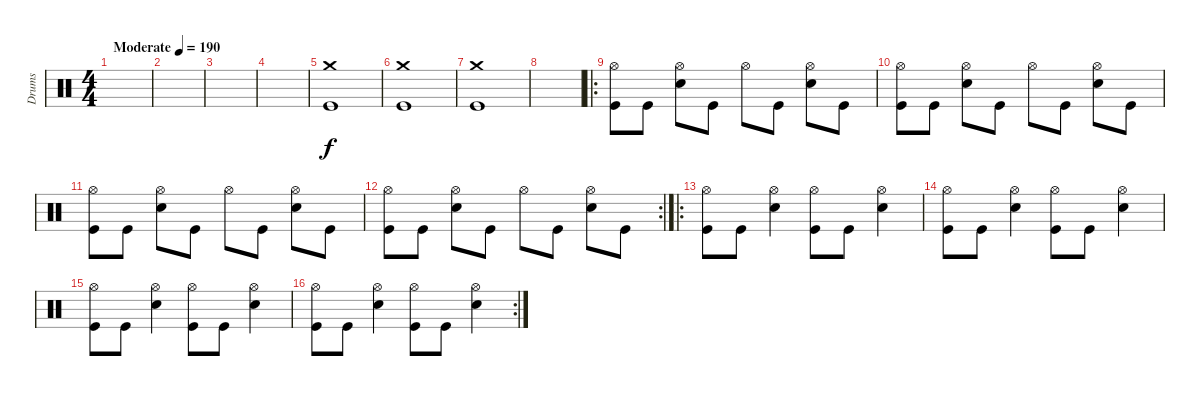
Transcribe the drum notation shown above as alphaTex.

\track ("Drums" "Drums") {instrument percussion}
\staff {score}
\articulation defaults
\ts (4 4)
\tempo (190 "Moderate")
\clef neutral
\ks c
|
|
|
|
("Crash medium (hit)" "Kick (hit)").1 |
("Crash medium (hit)" "Kick (hit)").1 |
("Crash medium (hit)" "Kick (hit)").1 |
|
\ro
("Hi-Hat (open)" "Kick (hit)").8 "Kick (hit)".8 ("Hi-Hat (open)" "Snare (hit) 2").8 "Kick (hit)".8 "Hi-Hat (open)".8 "Kick (hit)".8 ("Hi-Hat (open)" "Snare (hit) 2").8 "Kick (hit)".8 |
("Hi-Hat (open)" "Kick (hit)").8 "Kick (hit)".8 ("Hi-Hat (open)" "Snare (hit) 2").8 "Kick (hit)".8 "Hi-Hat (open)".8 "Kick (hit)".8 ("Hi-Hat (open)" "Snare (hit) 2").8 "Kick (hit)".8 |
("Hi-Hat (open)" "Kick (hit)").8 "Kick (hit)".8 ("Hi-Hat (open)" "Snare (hit) 2").8 "Kick (hit)".8 "Hi-Hat (open)".8 "Kick (hit)".8 ("Hi-Hat (open)" "Snare (hit) 2").8 "Kick (hit)".8 |
\rc 2
("Hi-Hat (open)" "Kick (hit)").8 "Kick (hit)".8 ("Hi-Hat (open)" "Snare (hit) 2").8 "Kick (hit)".8 "Hi-Hat (open)".8 "Kick (hit)".8 ("Hi-Hat (open)" "Snare (hit) 2").8 "Kick (hit)".8 |
\ro
("Hi-Hat (open)" "Kick (hit)").8 "Kick (hit)".8 ("Hi-Hat (open)" "Snare (hit) 2").4 ("Hi-Hat (open)" "Kick (hit)").8 "Kick (hit)".8 ("Hi-Hat (open)" "Snare (hit) 2").4 |
("Hi-Hat (open)" "Kick (hit)").8 "Kick (hit)".8 ("Hi-Hat (open)" "Snare (hit) 2").4 ("Hi-Hat (open)" "Kick (hit)").8 "Kick (hit)".8 ("Hi-Hat (open)" "Snare (hit) 2").4 |
("Hi-Hat (open)" "Kick (hit)").8 "Kick (hit)".8 ("Hi-Hat (open)" "Snare (hit) 2").4 ("Hi-Hat (open)" "Kick (hit)").8 "Kick (hit)".8 ("Hi-Hat (open)" "Snare (hit) 2").4 |
\rc 2
("Hi-Hat (open)" "Kick (hit)").8 "Kick (hit)".8 ("Hi-Hat (open)" "Snare (hit) 2").4 ("Hi-Hat (open)" "Kick (hit)").8 "Kick (hit)".8 ("Hi-Hat (open)" "Snare (hit) 2").4
